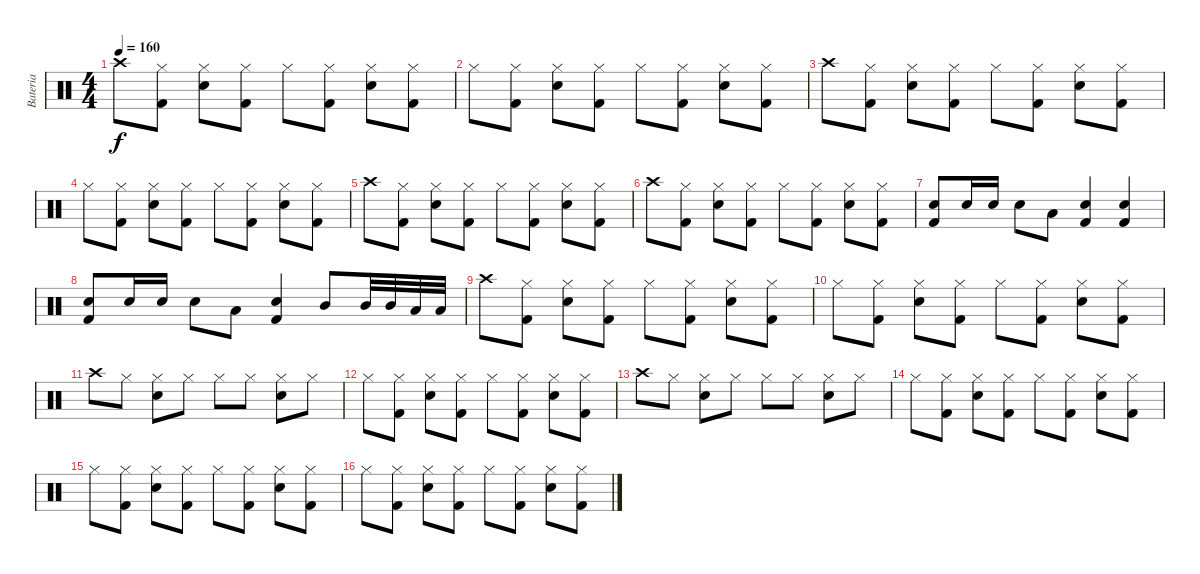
\track ("Bateria" "Bateria") {instrument percussion}
\staff {score}
\articulation defaults
\ts (4 4)
\tempo 160
\clef neutral
\ks c "Crash high (hit)".8{dy f}
("Hi-Hat (closed)" "Kick (hit) 2").8 ("Hi-Hat (closed)" "Snare (hit) 2").8 ("Hi-Hat (closed)" "Kick (hit) 2").8 "Hi-Hat (closed)".8 ("Hi-Hat (closed)" "Kick (hit) 2").8 ("Hi-Hat (closed)" "Snare (hit) 2").8 ("Hi-Hat (closed)" "Kick (hit) 2").8 |
"Hi-Hat (closed)".8 ("Hi-Hat (closed)" "Kick (hit) 2").8 ("Hi-Hat (closed)" "Snare (hit) 2").8 ("Hi-Hat (closed)" "Kick (hit) 2").8 "Hi-Hat (closed)".8 ("Hi-Hat (closed)" "Kick (hit) 2").8 ("Hi-Hat (closed)" "Snare (hit) 2").8 ("Hi-Hat (closed)" "Kick (hit) 2").8 |
"Crash high (hit)".8 ("Hi-Hat (closed)" "Kick (hit) 2").8 ("Hi-Hat (closed)" "Snare (hit) 2").8 ("Hi-Hat (closed)" "Kick (hit) 2").8 "Hi-Hat (closed)".8 ("Hi-Hat (closed)" "Kick (hit) 2").8 ("Hi-Hat (closed)" "Snare (hit) 2").8 ("Hi-Hat (closed)" "Kick (hit) 2").8 |
"Hi-Hat (closed)".8 ("Hi-Hat (closed)" "Kick (hit) 2").8 ("Hi-Hat (closed)" "Snare (hit) 2").8 ("Hi-Hat (closed)" "Kick (hit) 2").8 "Hi-Hat (closed)".8 ("Hi-Hat (closed)" "Kick (hit) 2").8 ("Hi-Hat (closed)" "Snare (hit) 2").8 ("Hi-Hat (closed)" "Kick (hit) 2").8 |
"Crash high (hit)".8 ("Hi-Hat (closed)" "Kick (hit) 2").8 ("Hi-Hat (closed)" "Snare (hit) 2").8 ("Hi-Hat (closed)" "Kick (hit) 2").8 "Hi-Hat (closed)".8 ("Hi-Hat (closed)" "Kick (hit) 2").8 ("Hi-Hat (closed)" "Snare (hit) 2").8 ("Hi-Hat (closed)" "Kick (hit) 2").8 |
"Crash high (hit)".8 ("Hi-Hat (closed)" "Kick (hit) 2").8 ("Hi-Hat (closed)" "Snare (hit) 2").8 ("Hi-Hat (closed)" "Kick (hit) 2").8 "Hi-Hat (closed)".8 ("Hi-Hat (closed)" "Kick (hit) 2").8 ("Hi-Hat (closed)" "Snare (hit) 2").8 ("Hi-Hat (closed)" "Kick (hit) 2").8 |
("Snare (hit) 2" "Kick (hit) 2").8 "Snare (hit) 2".16 "Snare (hit) 2".16 "Snare (hit) 2".8 "Low Floor Tom (hit)".8 ("Snare (hit) 2" "Kick (hit) 2").4 ("Snare (hit) 2" "Kick (hit) 2").4 |
("Snare (hit) 2" "Kick (hit) 2").8 "Snare (hit) 2".16 "Snare (hit) 2".16 "Snare (hit) 2".8 "Low Floor Tom (hit)".8 ("Snare (hit) 2" "Kick (hit) 2").4 "Mid Tom (hit)".8 "Mid Tom (hit)".32 "Mid Tom (hit)".32 "Low Tom (hit)".32 "Low Tom (hit)".32 |
"Crash high (hit)".8 ("Hi-Hat (closed)" "Kick (hit) 2").8 ("Hi-Hat (closed)" "Snare (hit) 2").8 ("Hi-Hat (closed)" "Kick (hit) 2").8 "Hi-Hat (closed)".8 ("Hi-Hat (closed)" "Kick (hit) 2").8 ("Hi-Hat (closed)" "Snare (hit) 2").8 ("Hi-Hat (closed)" "Kick (hit) 2").8 |
"Hi-Hat (closed)".8 ("Hi-Hat (closed)" "Kick (hit) 2").8 ("Hi-Hat (closed)" "Snare (hit) 2").8 ("Hi-Hat (closed)" "Kick (hit) 2").8 "Hi-Hat (closed)".8 ("Hi-Hat (closed)" "Kick (hit) 2").8 ("Hi-Hat (closed)" "Snare (hit) 2").8 ("Hi-Hat (closed)" "Kick (hit) 2").8 |
"Crash high (hit)".8 "Hi-Hat (closed)".8 ("Hi-Hat (closed)" "Snare (hit) 2").8 "Hi-Hat (closed)".8 "Hi-Hat (closed)".8 "Hi-Hat (closed)".8 ("Hi-Hat (closed)" "Snare (hit) 2").8 "Hi-Hat (closed)".8 |
"Hi-Hat (closed)".8 ("Hi-Hat (closed)" "Kick (hit) 2").8 ("Hi-Hat (closed)" "Snare (hit) 2").8 ("Hi-Hat (closed)" "Kick (hit) 2").8 "Hi-Hat (closed)".8 ("Hi-Hat (closed)" "Kick (hit) 2").8 ("Hi-Hat (closed)" "Snare (hit) 2").8 ("Hi-Hat (closed)" "Kick (hit) 2").8 |
"Crash high (hit)".8 "Hi-Hat (closed)".8 ("Hi-Hat (closed)" "Snare (hit) 2").8 "Hi-Hat (closed)".8 "Hi-Hat (closed)".8 "Hi-Hat (closed)".8 ("Hi-Hat (closed)" "Snare (hit) 2").8 "Hi-Hat (closed)".8 |
"Hi-Hat (closed)".8 ("Hi-Hat (closed)" "Kick (hit) 2").8 ("Hi-Hat (closed)" "Snare (hit) 2").8 ("Hi-Hat (closed)" "Kick (hit) 2").8 "Hi-Hat (closed)".8 ("Hi-Hat (closed)" "Kick (hit) 2").8 ("Hi-Hat (closed)" "Snare (hit) 2").8 ("Hi-Hat (closed)" "Kick (hit) 2").8 |
"Hi-Hat (closed)".8 ("Hi-Hat (closed)" "Kick (hit) 2").8 ("Hi-Hat (closed)" "Snare (hit) 2").8 ("Hi-Hat (closed)" "Kick (hit) 2").8 "Hi-Hat (closed)".8 ("Hi-Hat (closed)" "Kick (hit) 2").8 ("Hi-Hat (closed)" "Snare (hit) 2").8 ("Hi-Hat (closed)" "Kick (hit) 2").8 |
"Hi-Hat (closed)".8 ("Hi-Hat (closed)" "Kick (hit) 2").8 ("Hi-Hat (closed)" "Snare (hit) 2").8 ("Hi-Hat (closed)" "Kick (hit) 2").8 "Hi-Hat (closed)".8 ("Hi-Hat (closed)" "Kick (hit) 2").8 ("Hi-Hat (closed)" "Snare (hit) 2").8 ("Hi-Hat (closed)" "Kick (hit) 2").8
